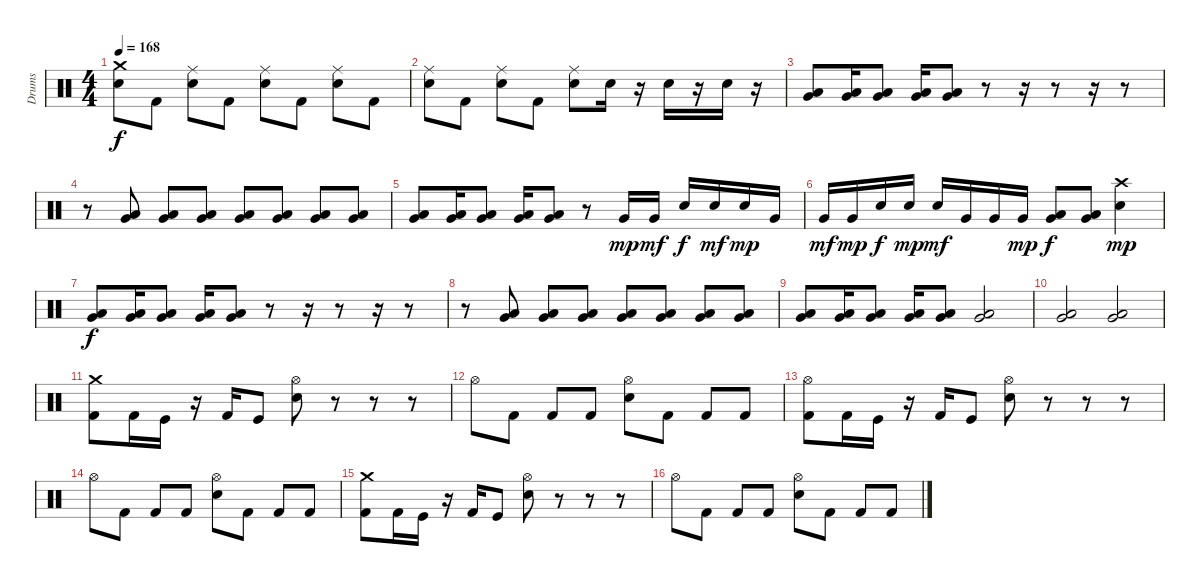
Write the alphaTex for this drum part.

\track ("Drums" "Drums") {instrument percussion}
\staff
\articulation defaults
\ts (4 4)
\tempo 168
\clef neutral
\ks c
("Crash medium (hit)" "Electric Snare (hit)").8{dy f} "Kick (hit) 2".8 ("Ride (middle)" "Electric Snare (hit)").8 "Kick (hit) 2".8 ("Ride (middle)" "Electric Snare (hit)").8 "Kick (hit) 2".8 ("Ride (middle)" "Electric Snare (hit)").8 "Kick (hit) 2".8 |
("Ride (middle)" "Electric Snare (hit)").8 "Kick (hit) 2".8 ("Ride (middle)" "Electric Snare (hit)").8 "Kick (hit) 2".8 ("Ride (middle)" "Electric Snare (hit)").8 "Electric Snare (hit)".16 r.16 "Electric Snare (hit)".16 r.16 "Electric Snare (hit)".16 r.16 |
("Low Floor Tom (hit)" "Very Low Tom (hit)").8{bd 60} ("Low Floor Tom (hit)" "Very Low Tom (hit)").16{bd 60} ("Low Floor Tom (hit)" "Very Low Tom (hit)").8{bu 60} ("Low Floor Tom (hit)" "Very Low Tom (hit)").16{bd 60} ("Low Floor Tom (hit)" "Very Low Tom (hit)").8{bu 60} r.8 r.16 r.8 r.16 r.8 |
r.8 ("Low Floor Tom (hit)" "Very Low Tom (hit)").8{bu 60} ("Low Floor Tom (hit)" "Very Low Tom (hit)").8{bd 60} ("Low Floor Tom (hit)" "Very Low Tom (hit)").8{bu 60} ("Low Floor Tom (hit)" "Very Low Tom (hit)").8{bd 60} ("Low Floor Tom (hit)" "Very Low Tom (hit)").8{bu 60} ("Low Floor Tom (hit)" "Very Low Tom (hit)").8{bd 60} ("Low Floor Tom (hit)" "Very Low Tom (hit)").8{bu 60} |
("Low Floor Tom (hit)" "Very Low Tom (hit)").8{bd 60} ("Low Floor Tom (hit)" "Very Low Tom (hit)").16{bd 60} ("Low Floor Tom (hit)" "Very Low Tom (hit)").8{bu 60} ("Low Floor Tom (hit)" "Very Low Tom (hit)").16{bd 60} ("Low Floor Tom (hit)" "Very Low Tom (hit)").8{bu 60} r.8 "Very Low Tom (hit)".16{dy mp} "Very Low Tom (hit)".16{dy mf} "Electric Snare (hit)".16{dy f} "Electric Snare (hit)".16{dy mf} "Electric Snare (hit)".16{dy mp} "Very Low Tom (hit)".16 |
"Very Low Tom (hit)".16{dy mf} "Very Low Tom (hit)".16{dy mp} "Electric Snare (hit)".16{dy f} "Electric Snare (hit)".16{bu 60 dy mp} "Electric Snare (hit)".16{dy mf} "Very Low Tom (hit)".16 "Very Low Tom (hit)".16 "Very Low Tom (hit)".16{dy mp} ("Low Floor Tom (hit)" "Very Low Tom (hit)").8{bd 60 dy f} ("Low Floor Tom (hit)" "Very Low Tom (hit)").8{bu 60} ("Crash high (hit)" "Electric Snare (hit)").4{dy mp} |
("Low Floor Tom (hit)" "Very Low Tom (hit)").8{bd 60 dy f} ("Low Floor Tom (hit)" "Very Low Tom (hit)").16{bd 60} ("Low Floor Tom (hit)" "Very Low Tom (hit)").8{bu 60} ("Low Floor Tom (hit)" "Very Low Tom (hit)").16{bd 60} ("Low Floor Tom (hit)" "Very Low Tom (hit)").8{bu 60} r.8 r.16 r.8 r.16 r.8 |
r.8 ("Low Floor Tom (hit)" "Very Low Tom (hit)").8{bu 60} ("Low Floor Tom (hit)" "Very Low Tom (hit)").8{bd 60} ("Low Floor Tom (hit)" "Very Low Tom (hit)").8{bu 60} ("Low Floor Tom (hit)" "Very Low Tom (hit)").8{bd 60} ("Low Floor Tom (hit)" "Very Low Tom (hit)").8{bu 60} ("Low Floor Tom (hit)" "Very Low Tom (hit)").8{bd 60} ("Low Floor Tom (hit)" "Very Low Tom (hit)").8{bu 60} |
("Low Floor Tom (hit)" "Very Low Tom (hit)").8{bd 60} ("Low Floor Tom (hit)" "Very Low Tom (hit)").16{bd 60} ("Low Floor Tom (hit)" "Very Low Tom (hit)").8{bu 60} ("Low Floor Tom (hit)" "Very Low Tom (hit)").16{bd 60} ("Low Floor Tom (hit)" "Very Low Tom (hit)").8{bu 60} ("Low Floor Tom (hit)" "Very Low Tom (hit)").2{bd 60} |
("Low Floor Tom (hit)" "Very Low Tom (hit)").2{bd 60} ("Low Floor Tom (hit)" "Very Low Tom (hit)").2{bd 60} |
("Crash medium (hit)" "Kick (hit) 2").8 "Kick (hit) 2".16 "Kick (hit)".16 r.16 "Kick (hit) 2".16 "Kick (hit)".8 ("Hi-Hat (open)" "Electric Snare (hit)").8 r.8 r.8 r.8 |
"Hi-Hat (open)".8 "Kick (hit) 2".8 "Kick (hit) 2".8 "Kick (hit) 2".8 ("Hi-Hat (open)" "Electric Snare (hit)").8 "Kick (hit) 2".8 "Kick (hit) 2".8 "Kick (hit) 2".8 |
("Hi-Hat (open)" "Kick (hit) 2").8 "Kick (hit) 2".16 "Kick (hit)".16 r.16 "Kick (hit) 2".16 "Kick (hit)".8 ("Hi-Hat (open)" "Electric Snare (hit)").8 r.8 r.8 r.8 |
"Hi-Hat (open)".8 "Kick (hit) 2".8 "Kick (hit) 2".8 "Kick (hit) 2".8 ("Hi-Hat (open)" "Electric Snare (hit)").8 "Kick (hit) 2".8 "Kick (hit) 2".8 "Kick (hit) 2".8 |
("Crash medium (hit)" "Kick (hit) 2").8 "Kick (hit) 2".16 "Kick (hit)".16 r.16 "Kick (hit) 2".16 "Kick (hit)".8 ("Hi-Hat (open)" "Electric Snare (hit)").8 r.8 r.8 r.8 |
"Hi-Hat (open)".8 "Kick (hit) 2".8 "Kick (hit) 2".8 "Kick (hit) 2".8 ("Hi-Hat (open)" "Electric Snare (hit)").8 "Kick (hit) 2".8 "Kick (hit) 2".8 "Kick (hit) 2".8
